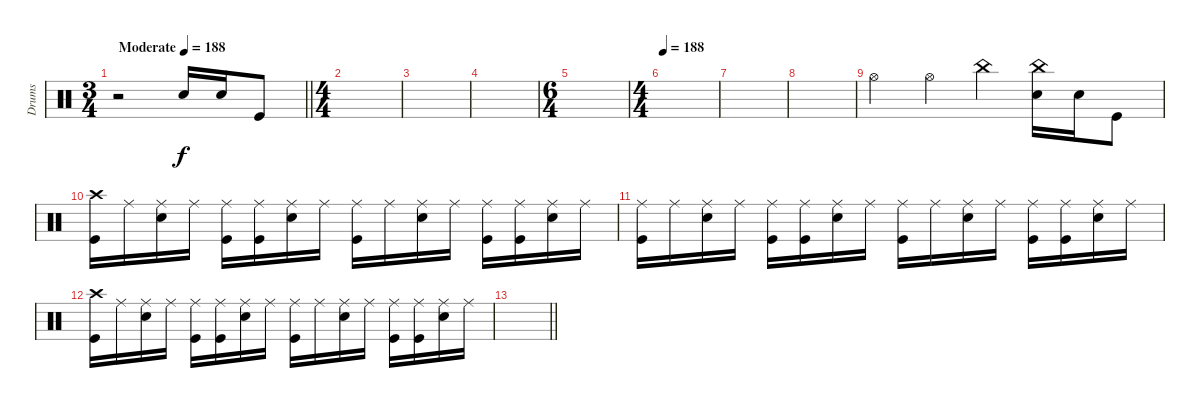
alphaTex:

\track ("Drums" "Drums") {instrument percussion}
\staff
\articulation defaults
\ts (3 4)
\tempo (188 "Moderate")
\tempo 155
\tempo (188 "Moderate")
\clef neutral
\barLineRight lightlight
\ks c
r.2{dy f} "Electric Snare (hit)".16 "Electric Snare (hit)".16 "Kick (hit)".8 |
\ts (4 4)
|
|
|
\ts (6 4)
|
\ts (4 4)
\tempo 188
|
|
|
"Hi-Hat (open)".4 "Hi-Hat (open)".4 "China (hit)".4 ("China (hit)" "Electric Snare (hit)").16 "Electric Snare (hit)".16 "Kick (hit)".8 |
("Crash high (hit)" "Kick (hit)").16 "Ride (middle)".16 ("Ride (middle)" "Electric Snare (hit)").16 "Ride (middle)".16 ("Ride (middle)" "Kick (hit)").16 ("Ride (middle)" "Kick (hit)").16 ("Ride (middle)" "Electric Snare (hit)").16 "Ride (middle)".16 ("Ride (middle)" "Kick (hit)").16 "Ride (middle)".16 ("Ride (middle)" "Electric Snare (hit)").16 "Ride (middle)".16 ("Ride (middle)" "Kick (hit)").16 ("Ride (middle)" "Kick (hit)").16 ("Ride (middle)" "Electric Snare (hit)").16 "Ride (middle)".16 |
("Ride (middle)" "Kick (hit)").16 "Ride (middle)".16 ("Ride (middle)" "Electric Snare (hit)").16 "Ride (middle)".16 ("Ride (middle)" "Kick (hit)").16 ("Ride (middle)" "Kick (hit)").16 ("Ride (middle)" "Electric Snare (hit)").16 "Ride (middle)".16 ("Ride (middle)" "Kick (hit)").16 "Ride (middle)".16 ("Ride (middle)" "Electric Snare (hit)").16 "Ride (middle)".16 ("Ride (middle)" "Kick (hit)").16 ("Ride (middle)" "Kick (hit)").16 ("Ride (middle)" "Electric Snare (hit)").16 "Ride (middle)".16 |
("Crash high (hit)" "Kick (hit)").16 "Ride (middle)".16 ("Ride (middle)" "Electric Snare (hit)").16 "Ride (middle)".16 ("Ride (middle)" "Kick (hit)").16 ("Ride (middle)" "Kick (hit)").16 ("Ride (middle)" "Electric Snare (hit)").16 "Ride (middle)".16 ("Ride (middle)" "Kick (hit)").16 "Ride (middle)".16 ("Ride (middle)" "Electric Snare (hit)").16 "Ride (middle)".16 ("Ride (middle)" "Kick (hit)").16 ("Ride (middle)" "Kick (hit)").16 ("Ride (middle)" "Electric Snare (hit)").16 "Ride (middle)".16 |
\barLineRight lightlight
